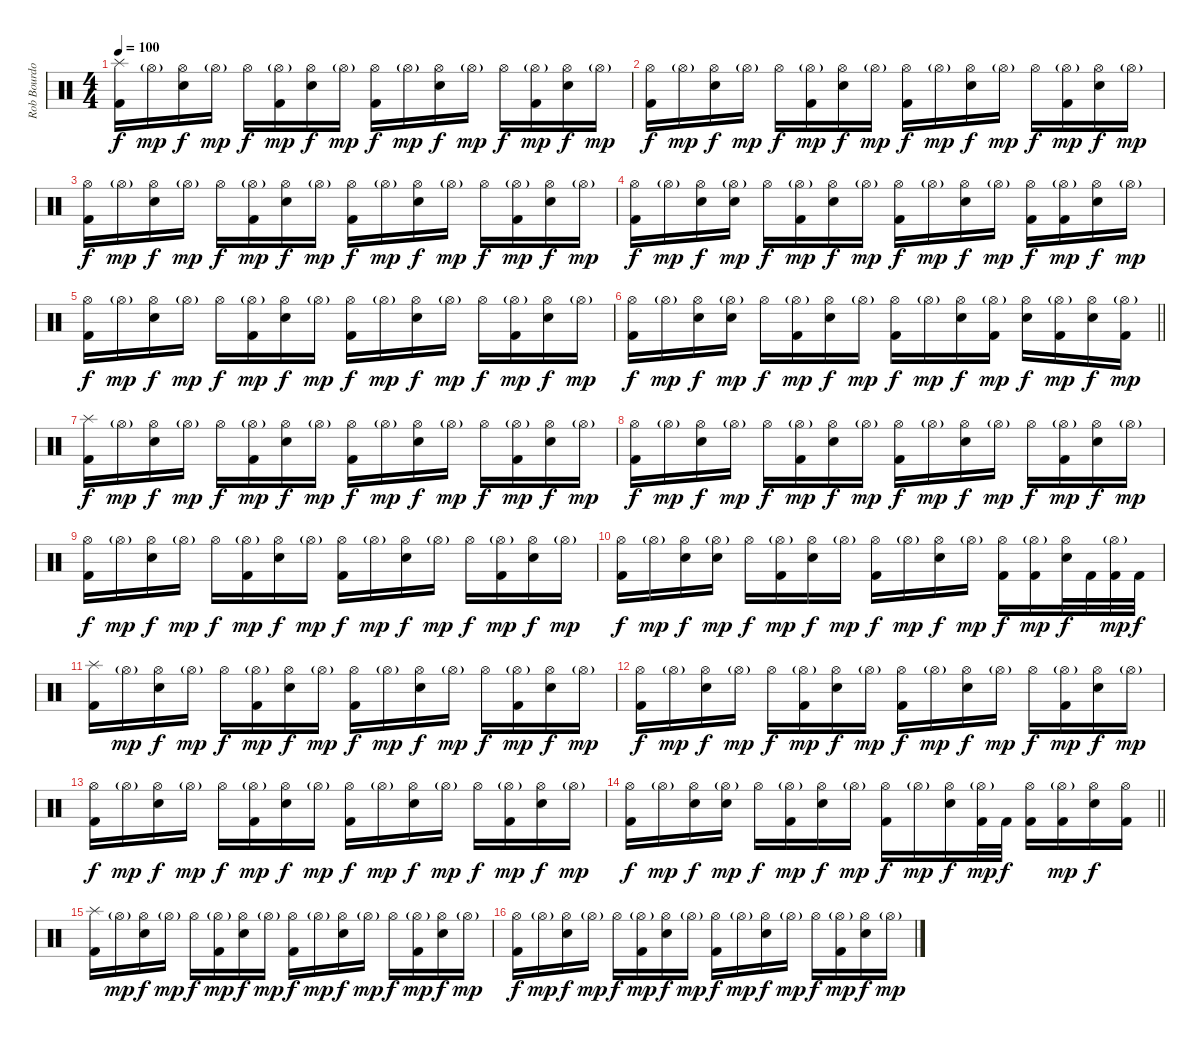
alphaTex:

\track ("Rob Bourdon (Drums)" "Rob Bourdo") {instrument percussion}
\staff {score}
\articulation defaults
\ts (4 4)
\tempo 100
\clef neutral
\ks c
("Splash (hit)" "Kick (hit) 2").16{dy f} "Hi-Hat (open)"{g}.16{dy mp} ("Hi-Hat (open)" "Electric Snare (hit)").16{dy f} "Hi-Hat (open)"{g}.16{dy mp} "Hi-Hat (open)".16{dy f} ("Hi-Hat (open)"{g} "Kick (hit) 2").16{dy mp} ("Hi-Hat (open)" "Electric Snare (hit)").16{dy f} "Hi-Hat (open)"{g}.16{dy mp} ("Hi-Hat (open)" "Kick (hit) 2").16{dy f} "Hi-Hat (open)"{g}.16{dy mp} ("Hi-Hat (open)" "Electric Snare (hit)").16{dy f} "Hi-Hat (open)"{g}.16{dy mp} "Hi-Hat (open)".16{dy f} ("Hi-Hat (open)"{g} "Kick (hit) 2").16{dy mp} ("Hi-Hat (open)" "Electric Snare (hit)").16{dy f} "Hi-Hat (open)"{g}.16{dy mp} |
("Hi-Hat (open)" "Kick (hit) 2").16{dy f} "Hi-Hat (open)"{g}.16{dy mp} ("Hi-Hat (open)" "Electric Snare (hit)").16{dy f} "Hi-Hat (open)"{g}.16{dy mp} "Hi-Hat (open)".16{dy f} ("Hi-Hat (open)"{g} "Kick (hit) 2").16{dy mp} ("Hi-Hat (open)" "Electric Snare (hit)").16{dy f} "Hi-Hat (open)"{g}.16{dy mp} ("Hi-Hat (open)" "Kick (hit) 2").16{dy f} "Hi-Hat (open)"{g}.16{dy mp} ("Hi-Hat (open)" "Electric Snare (hit)").16{dy f} "Hi-Hat (open)"{g}.16{dy mp} "Hi-Hat (open)".16{dy f} ("Hi-Hat (open)"{g} "Kick (hit) 2").16{dy mp} ("Hi-Hat (open)" "Electric Snare (hit)").16{dy f} "Hi-Hat (open)"{g}.16{dy mp} |
("Hi-Hat (open)" "Kick (hit) 2").16{dy f} "Hi-Hat (open)"{g}.16{dy mp} ("Hi-Hat (open)" "Electric Snare (hit)").16{dy f} "Hi-Hat (open)"{g}.16{dy mp} "Hi-Hat (open)".16{dy f} ("Hi-Hat (open)"{g} "Kick (hit) 2").16{dy mp} ("Hi-Hat (open)" "Electric Snare (hit)").16{dy f} "Hi-Hat (open)"{g}.16{dy mp} ("Hi-Hat (open)" "Kick (hit) 2").16{dy f} "Hi-Hat (open)"{g}.16{dy mp} ("Hi-Hat (open)" "Electric Snare (hit)").16{dy f} "Hi-Hat (open)"{g}.16{dy mp} "Hi-Hat (open)".16{dy f} ("Hi-Hat (open)"{g} "Kick (hit) 2").16{dy mp} ("Hi-Hat (open)" "Electric Snare (hit)").16{dy f} "Hi-Hat (open)"{g}.16{dy mp} |
("Hi-Hat (open)" "Kick (hit) 2").16{dy f} "Hi-Hat (open)"{g}.16{dy mp} ("Hi-Hat (open)" "Electric Snare (hit)").16{dy f} ("Hi-Hat (open)"{g} "Electric Snare (hit)").16{dy mp} "Hi-Hat (open)".16{dy f} ("Hi-Hat (open)"{g} "Kick (hit) 2").16{dy mp} ("Hi-Hat (open)" "Electric Snare (hit)").16{dy f} "Hi-Hat (open)"{g}.16{dy mp} ("Hi-Hat (open)" "Kick (hit) 2").16{dy f} "Hi-Hat (open)"{g}.16{dy mp} ("Hi-Hat (open)" "Electric Snare (hit)").16{dy f} "Hi-Hat (open)"{g}.16{dy mp} ("Hi-Hat (open)" "Kick (hit) 2").16{dy f} ("Hi-Hat (open)"{g} "Kick (hit) 2").16{dy mp} ("Hi-Hat (open)" "Electric Snare (hit)").16{dy f} "Hi-Hat (open)"{g}.16{dy mp} |
("Hi-Hat (open)" "Kick (hit) 2").16{dy f} "Hi-Hat (open)"{g}.16{dy mp} ("Hi-Hat (open)" "Electric Snare (hit)").16{dy f} "Hi-Hat (open)"{g}.16{dy mp} "Hi-Hat (open)".16{dy f} ("Hi-Hat (open)"{g} "Kick (hit) 2").16{dy mp} ("Hi-Hat (open)" "Electric Snare (hit)").16{dy f} "Hi-Hat (open)"{g}.16{dy mp} ("Hi-Hat (open)" "Kick (hit) 2").16{dy f} "Hi-Hat (open)"{g}.16{dy mp} ("Hi-Hat (open)" "Electric Snare (hit)").16{dy f} "Hi-Hat (open)"{g}.16{dy mp} "Hi-Hat (open)".16{dy f} ("Hi-Hat (open)"{g} "Kick (hit) 2").16{dy mp} ("Hi-Hat (open)" "Electric Snare (hit)").16{dy f} "Hi-Hat (open)"{g}.16{dy mp} |
\barLineRight lightlight
("Hi-Hat (open)" "Kick (hit) 2").16{dy f} "Hi-Hat (open)"{g}.16{dy mp} ("Hi-Hat (open)" "Electric Snare (hit)").16{dy f} ("Hi-Hat (open)"{g} "Electric Snare (hit)").16{dy mp} "Hi-Hat (open)".16{dy f} ("Hi-Hat (open)"{g} "Kick (hit) 2").16{dy mp} ("Hi-Hat (open)" "Electric Snare (hit)").16{dy f} "Hi-Hat (open)"{g}.16{dy mp} ("Hi-Hat (open)" "Kick (hit) 2").16{dy f} "Hi-Hat (open)"{g}.16{dy mp} ("Hi-Hat (open)" "Electric Snare (hit)").16{dy f} ("Hi-Hat (open)"{g} "Kick (hit) 2").16{dy mp} ("Hi-Hat (open)" "Electric Snare (hit)").16{dy f} ("Hi-Hat (open)"{g} "Kick (hit) 2").16{dy mp} ("Hi-Hat (open)" "Electric Snare (hit)").16{dy f} ("Hi-Hat (open)"{g} "Kick (hit) 2").16{dy mp} |
("Splash (hit)" "Kick (hit) 2").16{dy f} "Hi-Hat (open)"{g}.16{dy mp} ("Hi-Hat (open)" "Electric Snare (hit)").16{dy f} "Hi-Hat (open)"{g}.16{dy mp} "Hi-Hat (open)".16{dy f} ("Hi-Hat (open)"{g} "Kick (hit) 2").16{dy mp} ("Hi-Hat (open)" "Electric Snare (hit)").16{dy f} "Hi-Hat (open)"{g}.16{dy mp} ("Hi-Hat (open)" "Kick (hit) 2").16{dy f} "Hi-Hat (open)"{g}.16{dy mp} ("Hi-Hat (open)" "Electric Snare (hit)").16{dy f} "Hi-Hat (open)"{g}.16{dy mp} "Hi-Hat (open)".16{dy f} ("Hi-Hat (open)"{g} "Kick (hit) 2").16{dy mp} ("Hi-Hat (open)" "Electric Snare (hit)").16{dy f} "Hi-Hat (open)"{g}.16{dy mp} |
("Hi-Hat (open)" "Kick (hit) 2").16{dy f} "Hi-Hat (open)"{g}.16{dy mp} ("Hi-Hat (open)" "Electric Snare (hit)").16{dy f} "Hi-Hat (open)"{g}.16{dy mp} "Hi-Hat (open)".16{dy f} ("Hi-Hat (open)"{g} "Kick (hit) 2").16{dy mp} ("Hi-Hat (open)" "Electric Snare (hit)").16{dy f} "Hi-Hat (open)"{g}.16{dy mp} ("Hi-Hat (open)" "Kick (hit) 2").16{dy f} "Hi-Hat (open)"{g}.16{dy mp} ("Hi-Hat (open)" "Electric Snare (hit)").16{dy f} "Hi-Hat (open)"{g}.16{dy mp} "Hi-Hat (open)".16{dy f} ("Hi-Hat (open)"{g} "Kick (hit) 2").16{dy mp} ("Hi-Hat (open)" "Electric Snare (hit)").16{dy f} "Hi-Hat (open)"{g}.16{dy mp} |
("Hi-Hat (open)" "Kick (hit) 2").16{dy f} "Hi-Hat (open)"{g}.16{dy mp} ("Hi-Hat (open)" "Electric Snare (hit)").16{dy f} "Hi-Hat (open)"{g}.16{dy mp} "Hi-Hat (open)".16{dy f} ("Hi-Hat (open)"{g} "Kick (hit) 2").16{dy mp} ("Hi-Hat (open)" "Electric Snare (hit)").16{dy f} "Hi-Hat (open)"{g}.16{dy mp} ("Hi-Hat (open)" "Kick (hit) 2").16{dy f} "Hi-Hat (open)"{g}.16{dy mp} ("Hi-Hat (open)" "Electric Snare (hit)").16{dy f} "Hi-Hat (open)"{g}.16{dy mp} "Hi-Hat (open)".16{dy f} ("Hi-Hat (open)"{g} "Kick (hit) 2").16{dy mp} ("Hi-Hat (open)" "Electric Snare (hit)").16{dy f} "Hi-Hat (open)"{g}.16{dy mp} |
("Hi-Hat (open)" "Kick (hit) 2").16{dy f} "Hi-Hat (open)"{g}.16{dy mp} ("Hi-Hat (open)" "Electric Snare (hit)").16{dy f} ("Hi-Hat (open)"{g} "Electric Snare (hit)").16{dy mp} "Hi-Hat (open)".16{dy f} ("Hi-Hat (open)"{g} "Kick (hit) 2").16{dy mp} ("Hi-Hat (open)" "Electric Snare (hit)").16{dy f} "Hi-Hat (open)"{g}.16{dy mp} ("Hi-Hat (open)" "Kick (hit) 2").16{dy f} "Hi-Hat (open)"{g}.16{dy mp} ("Hi-Hat (open)" "Electric Snare (hit)").16{dy f} "Hi-Hat (open)"{g}.16{dy mp} ("Hi-Hat (open)" "Kick (hit) 2").16{dy f} ("Hi-Hat (open)"{g} "Kick (hit) 2").16{dy mp} ("Hi-Hat (open)" "Electric Snare (hit)").32{dy f} "Kick (hit) 2".32 ("Hi-Hat (open)"{g} "Kick (hit) 2").32{dy mp} "Kick (hit) 2".32{dy f} |
("Splash (hit)" "Kick (hit) 2").16 "Hi-Hat (open)"{g}.16{dy mp} ("Hi-Hat (open)" "Electric Snare (hit)").16{dy f} "Hi-Hat (open)"{g}.16{dy mp} "Hi-Hat (open)".16{dy f} ("Hi-Hat (open)"{g} "Kick (hit) 2").16{dy mp} ("Hi-Hat (open)" "Electric Snare (hit)").16{dy f} "Hi-Hat (open)"{g}.16{dy mp} ("Hi-Hat (open)" "Kick (hit) 2").16{dy f} "Hi-Hat (open)"{g}.16{dy mp} ("Hi-Hat (open)" "Electric Snare (hit)").16{dy f} "Hi-Hat (open)"{g}.16{dy mp} "Hi-Hat (open)".16{dy f} ("Hi-Hat (open)"{g} "Kick (hit) 2").16{dy mp} ("Hi-Hat (open)" "Electric Snare (hit)").16{dy f} "Hi-Hat (open)"{g}.16{dy mp} |
("Hi-Hat (open)" "Kick (hit) 2").16{dy f} "Hi-Hat (open)"{g}.16{dy mp} ("Hi-Hat (open)" "Electric Snare (hit)").16{dy f} "Hi-Hat (open)"{g}.16{dy mp} "Hi-Hat (open)".16{dy f} ("Hi-Hat (open)"{g} "Kick (hit) 2").16{dy mp} ("Hi-Hat (open)" "Electric Snare (hit)").16{dy f} "Hi-Hat (open)"{g}.16{dy mp} ("Hi-Hat (open)" "Kick (hit) 2").16{dy f} "Hi-Hat (open)"{g}.16{dy mp} ("Hi-Hat (open)" "Electric Snare (hit)").16{dy f} "Hi-Hat (open)"{g}.16{dy mp} "Hi-Hat (open)".16{dy f} ("Hi-Hat (open)"{g} "Kick (hit) 2").16{dy mp} ("Hi-Hat (open)" "Electric Snare (hit)").16{dy f} "Hi-Hat (open)"{g}.16{dy mp} |
("Hi-Hat (open)" "Kick (hit) 2").16{dy f} "Hi-Hat (open)"{g}.16{dy mp} ("Hi-Hat (open)" "Electric Snare (hit)").16{dy f} "Hi-Hat (open)"{g}.16{dy mp} "Hi-Hat (open)".16{dy f} ("Hi-Hat (open)"{g} "Kick (hit) 2").16{dy mp} ("Hi-Hat (open)" "Electric Snare (hit)").16{dy f} "Hi-Hat (open)"{g}.16{dy mp} ("Hi-Hat (open)" "Kick (hit) 2").16{dy f} "Hi-Hat (open)"{g}.16{dy mp} ("Hi-Hat (open)" "Electric Snare (hit)").16{dy f} "Hi-Hat (open)"{g}.16{dy mp} "Hi-Hat (open)".16{dy f} ("Hi-Hat (open)"{g} "Kick (hit) 2").16{dy mp} ("Hi-Hat (open)" "Electric Snare (hit)").16{dy f} "Hi-Hat (open)"{g}.16{dy mp} |
\barLineRight lightlight
("Hi-Hat (open)" "Kick (hit) 2").16{dy f} "Hi-Hat (open)"{g}.16{dy mp} ("Hi-Hat (open)" "Electric Snare (hit)").16{dy f} ("Hi-Hat (open)"{g} "Electric Snare (hit)").16{dy mp} "Hi-Hat (open)".16{dy f} ("Hi-Hat (open)"{g} "Kick (hit) 2").16{dy mp} ("Hi-Hat (open)" "Electric Snare (hit)").16{dy f} "Hi-Hat (open)"{g}.16{dy mp} ("Hi-Hat (open)" "Kick (hit) 2").16{dy f} "Hi-Hat (open)"{g}.16{dy mp} ("Hi-Hat (open)" "Electric Snare (hit)").16{dy f} ("Hi-Hat (open)"{g} "Kick (hit) 2").32{dy mp} "Kick (hit) 2".32{dy f} ("Hi-Hat (open)" "Kick (hit) 2").16 ("Hi-Hat (open)"{g} "Kick (hit) 2").16{dy mp} ("Hi-Hat (open)" "Electric Snare (hit)").16{dy f} ("Hi-Hat (open)" "Kick (hit) 2").16 |
("Splash (hit)" "Kick (hit) 2").16 "Hi-Hat (open)"{g}.16{dy mp} ("Hi-Hat (open)" "Electric Snare (hit)").16{dy f} "Hi-Hat (open)"{g}.16{dy mp} "Hi-Hat (open)".16{dy f} ("Hi-Hat (open)"{g} "Kick (hit) 2").16{dy mp} ("Hi-Hat (open)" "Electric Snare (hit)").16{dy f} "Hi-Hat (open)"{g}.16{dy mp} ("Hi-Hat (open)" "Kick (hit) 2").16{dy f} "Hi-Hat (open)"{g}.16{dy mp} ("Hi-Hat (open)" "Electric Snare (hit)").16{dy f} "Hi-Hat (open)"{g}.16{dy mp} "Hi-Hat (open)".16{dy f} ("Hi-Hat (open)"{g} "Kick (hit) 2").16{dy mp} ("Hi-Hat (open)" "Electric Snare (hit)").16{dy f} "Hi-Hat (open)"{g}.16{dy mp} |
("Hi-Hat (open)" "Kick (hit) 2").16{dy f} "Hi-Hat (open)"{g}.16{dy mp} ("Hi-Hat (open)" "Electric Snare (hit)").16{dy f} "Hi-Hat (open)"{g}.16{dy mp} "Hi-Hat (open)".16{dy f} ("Hi-Hat (open)"{g} "Kick (hit) 2").16{dy mp} ("Hi-Hat (open)" "Electric Snare (hit)").16{dy f} "Hi-Hat (open)"{g}.16{dy mp} ("Hi-Hat (open)" "Kick (hit) 2").16{dy f} "Hi-Hat (open)"{g}.16{dy mp} ("Hi-Hat (open)" "Electric Snare (hit)").16{dy f} "Hi-Hat (open)"{g}.16{dy mp} "Hi-Hat (open)".16{dy f} ("Hi-Hat (open)"{g} "Kick (hit) 2").16{dy mp} ("Hi-Hat (open)" "Electric Snare (hit)").16{dy f} "Hi-Hat (open)"{g}.16{dy mp}
